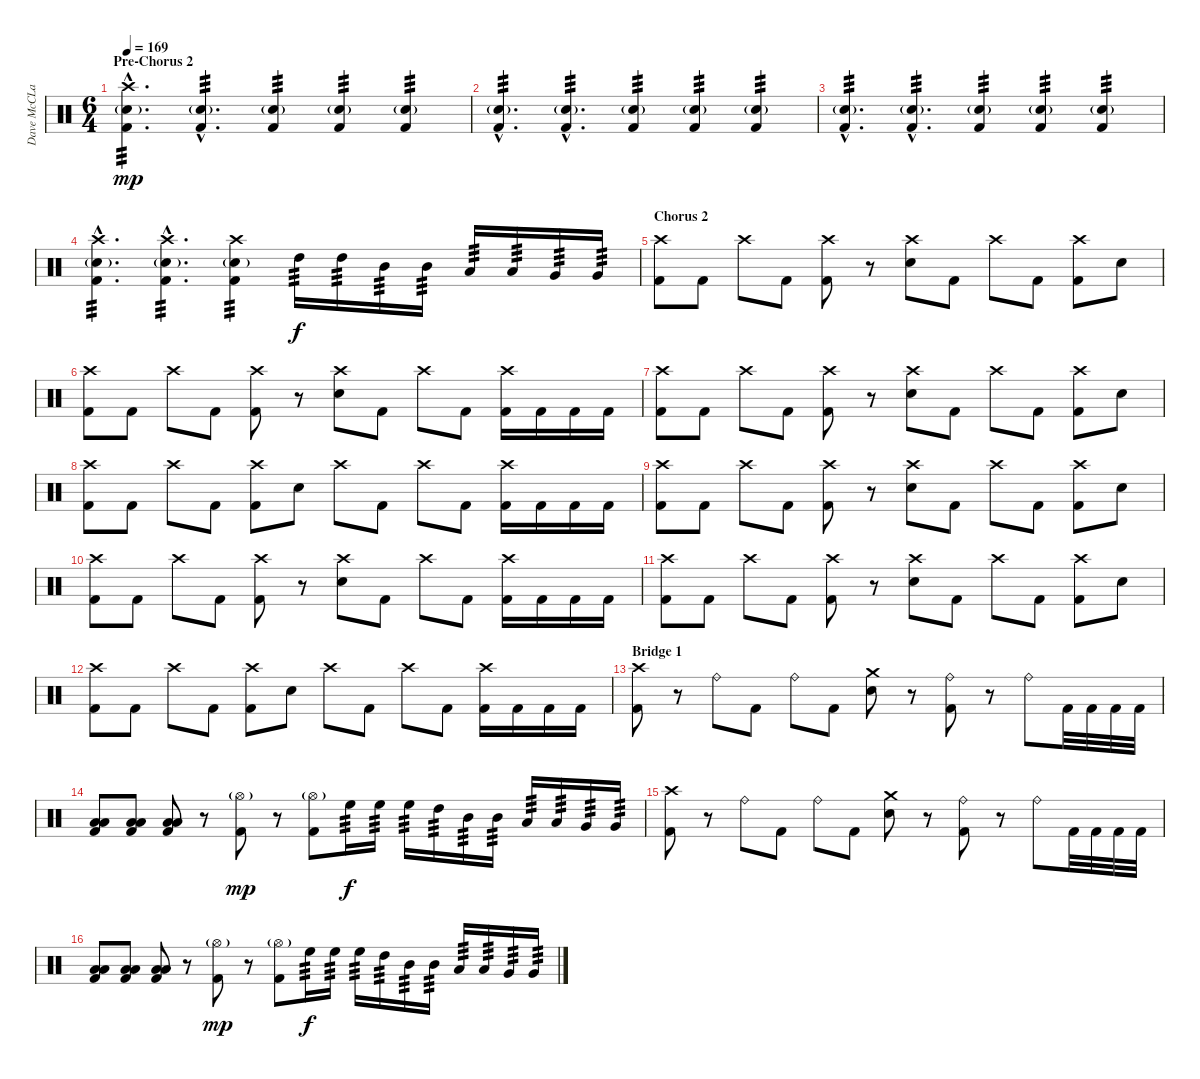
\track ("Dave McCLain" "Dave McCLa") {instrument percussion}
\staff {score}
\articulation defaults
\ts (6 4)
\section ("" "Pre-Chorus 2")
\tempo 169
\clef neutral
\ks c
("Crash high (hit)"{hac} "Electric Snare (hit)"{g hac} "Kick (hit) 2"{hac}).4{d tp 3 dy mp} ("Electric Snare (hit)"{g hac} "Kick (hit) 2"{hac}).4{d tp 3} ("Electric Snare (hit)"{g} "Kick (hit) 2").4{tp 3} ("Electric Snare (hit)"{g} "Kick (hit) 2").4{tp 3} ("Electric Snare (hit)"{g} "Kick (hit) 2").4{tp 3} |
("Electric Snare (hit)"{g hac} "Kick (hit) 2"{hac}).4{d tp 3} ("Electric Snare (hit)"{g hac} "Kick (hit) 2"{hac}).4{d tp 3} ("Electric Snare (hit)"{g} "Kick (hit) 2").4{tp 3} ("Electric Snare (hit)"{g} "Kick (hit) 2").4{tp 3} ("Electric Snare (hit)"{g} "Kick (hit) 2").4{tp 3} |
("Electric Snare (hit)"{g hac} "Kick (hit) 2"{hac}).4{d tp 3} ("Electric Snare (hit)"{g hac} "Kick (hit) 2"{hac}).4{d tp 3} ("Electric Snare (hit)"{g} "Kick (hit) 2").4{tp 3} ("Electric Snare (hit)"{g} "Kick (hit) 2").4{tp 3} ("Electric Snare (hit)"{g} "Kick (hit) 2").4{tp 3} |
("Crash high (hit)"{hac} "Electric Snare (hit)"{g hac} "Kick (hit) 2"{hac}).4{d tp 3} ("Crash high (hit)"{hac} "Electric Snare (hit)"{g hac} "Kick (hit) 2"{hac}).4{d tp 3} ("Crash high (hit)" "Electric Snare (hit)"{g} "Kick (hit) 2").4{tp 3} "High Tom (hit)".16{tp 3 dy f} "High Tom (hit)".16{tp 3} "Mid Tom (hit)".16{tp 3} "Mid Tom (hit)".16{tp 3} "Low Tom (hit)".16{tp 3} "Low Tom (hit)".16{tp 3} "Very Low Tom (hit)".16{tp 3} "Very Low Tom (hit)".16{tp 3} |
\section ("" "Chorus 2")
("Crash high (hit)" "Kick (hit) 2").8 "Kick (hit) 2".8 "Crash high (hit)".8 "Kick (hit) 2".8 ("Crash high (hit)" "Kick (hit) 2").8 r.8 ("Crash high (hit)" "Electric Snare (hit)").8 "Kick (hit) 2".8 "Crash high (hit)".8 "Kick (hit) 2".8 ("Crash high (hit)" "Kick (hit) 2").8 "Electric Snare (hit)".8 |
("Crash high (hit)" "Kick (hit) 2").8 "Kick (hit) 2".8 "Crash high (hit)".8 "Kick (hit) 2".8 ("Crash high (hit)" "Kick (hit) 2").8 r.8 ("Crash high (hit)" "Electric Snare (hit)").8 "Kick (hit) 2".8 "Crash high (hit)".8 "Kick (hit) 2".8 ("Crash high (hit)" "Kick (hit) 2").16 "Kick (hit) 2".16 "Kick (hit) 2".16 "Kick (hit) 2".16 |
("Crash high (hit)" "Kick (hit) 2").8 "Kick (hit) 2".8 "Crash high (hit)".8 "Kick (hit) 2".8 ("Crash high (hit)" "Kick (hit) 2").8 r.8 ("Crash high (hit)" "Electric Snare (hit)").8 "Kick (hit) 2".8 "Crash high (hit)".8 "Kick (hit) 2".8 ("Crash high (hit)" "Kick (hit) 2").8 "Electric Snare (hit)".8 |
("Crash high (hit)" "Kick (hit) 2").8 "Kick (hit) 2".8 "Crash high (hit)".8 "Kick (hit) 2".8 ("Crash high (hit)" "Kick (hit) 2").8 "Electric Snare (hit)".8 "Crash high (hit)".8 "Kick (hit) 2".8 "Crash high (hit)".8 "Kick (hit) 2".8 ("Crash high (hit)" "Kick (hit) 2").16 "Kick (hit) 2".16 "Kick (hit) 2".16 "Kick (hit) 2".16 |
("Crash high (hit)" "Kick (hit) 2").8 "Kick (hit) 2".8 "Crash high (hit)".8 "Kick (hit) 2".8 ("Crash high (hit)" "Kick (hit) 2").8 r.8 ("Crash high (hit)" "Electric Snare (hit)").8 "Kick (hit) 2".8 "Crash high (hit)".8 "Kick (hit) 2".8 ("Crash high (hit)" "Kick (hit) 2").8 "Electric Snare (hit)".8 |
("Crash high (hit)" "Kick (hit) 2").8 "Kick (hit) 2".8 "Crash high (hit)".8 "Kick (hit) 2".8 ("Crash high (hit)" "Kick (hit) 2").8 r.8 ("Crash high (hit)" "Electric Snare (hit)").8 "Kick (hit) 2".8 "Crash high (hit)".8 "Kick (hit) 2".8 ("Crash high (hit)" "Kick (hit) 2").16 "Kick (hit) 2".16 "Kick (hit) 2".16 "Kick (hit) 2".16 |
("Crash high (hit)" "Kick (hit) 2").8 "Kick (hit) 2".8 "Crash high (hit)".8 "Kick (hit) 2".8 ("Crash high (hit)" "Kick (hit) 2").8 r.8 ("Crash high (hit)" "Electric Snare (hit)").8 "Kick (hit) 2".8 "Crash high (hit)".8 "Kick (hit) 2".8 ("Crash high (hit)" "Kick (hit) 2").8 "Electric Snare (hit)".8 |
("Crash high (hit)" "Kick (hit) 2").8 "Kick (hit) 2".8 "Crash high (hit)".8 "Kick (hit) 2".8 ("Crash high (hit)" "Kick (hit) 2").8 "Electric Snare (hit)".8 "Crash high (hit)".8 "Kick (hit) 2".8 "Crash high (hit)".8 "Kick (hit) 2".8 ("Crash high (hit)" "Kick (hit) 2").16 "Kick (hit) 2".16 "Kick (hit) 2".16 "Kick (hit) 2".16 |
\section ("" "Bridge 1")
("Crash high (hit)" "Kick (hit) 2").8 r.8 "Ride (bell)".8 "Kick (hit) 2".8 "Ride (bell)".8 "Kick (hit) 2".8 ("Crash medium (hit)" "Electric Snare (hit)").8 r.8 ("Ride (bell)" "Kick (hit) 2").8 r.8 "Ride (bell)".8 "Kick (hit) 2".32 "Kick (hit) 2".32 "Kick (hit) 2".32 "Kick (hit) 2".32 |
("Low Floor Tom (hit)" "Low Floor Tom (hit)" "Kick (hit) 2").8 ("Low Floor Tom (hit)" "Low Floor Tom (hit)" "Kick (hit) 2").8 ("Low Floor Tom (hit)" "Low Floor Tom (hit)" "Kick (hit) 2").8 r.8 ("Hi-Hat (open)"{g} "Kick (hit) 2").8{dy mp} r.8 ("Hi-Hat (open)"{g} "Kick (hit) 2").8 "High Floor Tom (hit)".16{tp 3 dy f} "High Floor Tom (hit)".16{tp 3} "High Floor Tom (hit)".16{tp 3} "High Tom (hit)".16{tp 3} "Mid Tom (hit)".16{tp 3} "Mid Tom (hit)".16{tp 3} "Low Tom (hit)".16{tp 3} "Low Tom (hit)".16{tp 3} "Very Low Tom (hit)".16{tp 3} "Very Low Tom (hit)".16{tp 3} |
("Crash high (hit)" "Kick (hit) 2").8 r.8 "Ride (bell)".8 "Kick (hit) 2".8 "Ride (bell)".8 "Kick (hit) 2".8 ("Crash medium (hit)" "Electric Snare (hit)").8 r.8 ("Ride (bell)" "Kick (hit) 2").8 r.8 "Ride (bell)".8 "Kick (hit) 2".32 "Kick (hit) 2".32 "Kick (hit) 2".32 "Kick (hit) 2".32 |
("Low Floor Tom (hit)" "Low Floor Tom (hit)" "Kick (hit) 2").8 ("Low Floor Tom (hit)" "Low Floor Tom (hit)" "Kick (hit) 2").8 ("Low Floor Tom (hit)" "Low Floor Tom (hit)" "Kick (hit) 2").8 r.8 ("Hi-Hat (open)"{g} "Kick (hit) 2").8{dy mp} r.8 ("Hi-Hat (open)"{g} "Kick (hit) 2").8 "High Floor Tom (hit)".16{tp 3 dy f} "High Floor Tom (hit)".16{tp 3} "High Floor Tom (hit)".16{tp 3} "High Tom (hit)".16{tp 3} "Mid Tom (hit)".16{tp 3} "Mid Tom (hit)".16{tp 3} "Low Tom (hit)".16{tp 3} "Low Tom (hit)".16{tp 3} "Very Low Tom (hit)".16{tp 3} "Very Low Tom (hit)".16{tp 3}
